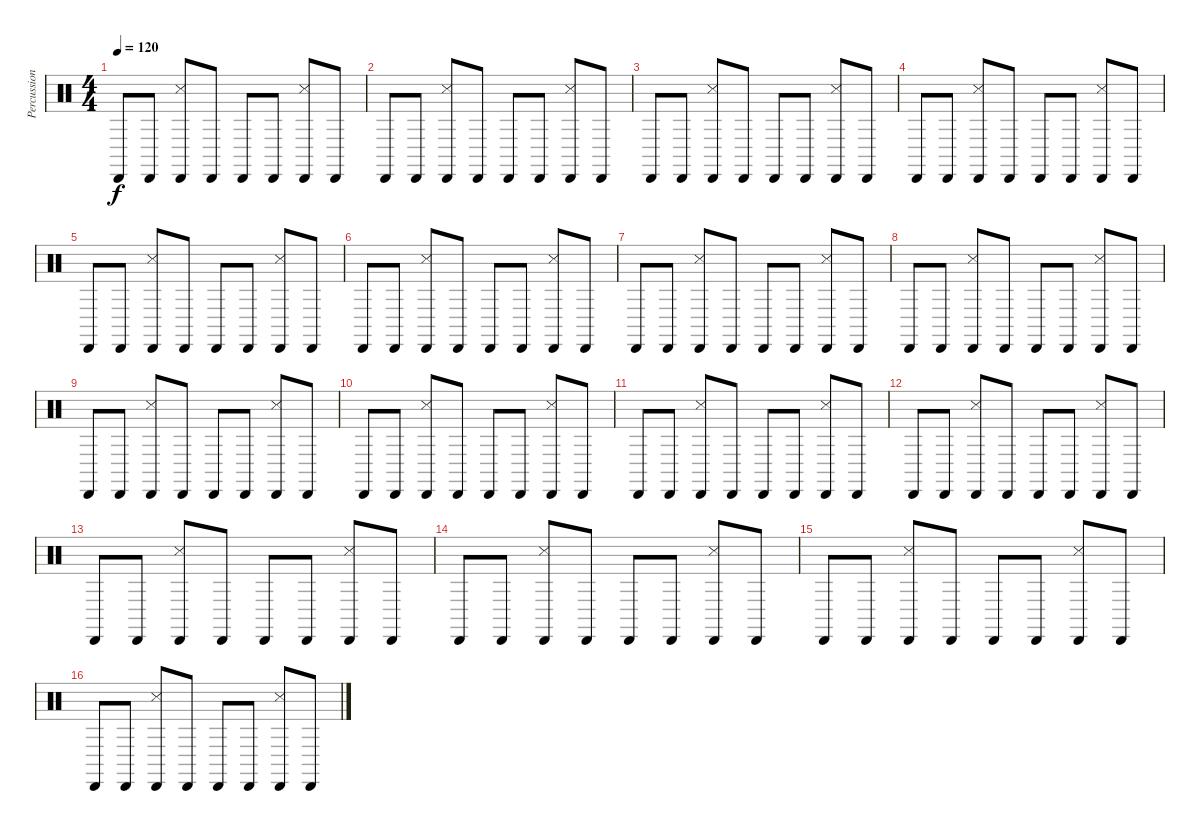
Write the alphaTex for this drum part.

\track ("Percussions" "Percussion") {instrument percussion}
\staff {score}
\articulation defaults
\ts (4 4)
\tempo 120
\clef neutral
\ks c "Cabasa (hit)".8{dy f} "Cabasa (hit)".8
("Snare (side stick) 3" "Cabasa (hit)").8 "Cabasa (hit)".8 "Cabasa (hit)".8 "Cabasa (hit)".8 ("Snare (side stick) 3" "Cabasa (hit)").8 "Cabasa (hit)".8 |
"Cabasa (hit)".8 "Cabasa (hit)".8 ("Snare (side stick) 3" "Cabasa (hit)").8 "Cabasa (hit)".8 "Cabasa (hit)".8 "Cabasa (hit)".8 ("Snare (side stick) 3" "Cabasa (hit)").8 "Cabasa (hit)".8 |
"Cabasa (hit)".8 "Cabasa (hit)".8 ("Snare (side stick) 3" "Cabasa (hit)").8 "Cabasa (hit)".8 "Cabasa (hit)".8 "Cabasa (hit)".8 ("Snare (side stick) 3" "Cabasa (hit)").8 "Cabasa (hit)".8 |
"Cabasa (hit)".8 "Cabasa (hit)".8 ("Snare (side stick) 3" "Cabasa (hit)").8 "Cabasa (hit)".8 "Cabasa (hit)".8 "Cabasa (hit)".8 ("Snare (side stick) 3" "Cabasa (hit)").8 "Cabasa (hit)".8 |
"Cabasa (hit)".8 "Cabasa (hit)".8 ("Snare (side stick) 3" "Cabasa (hit)").8 "Cabasa (hit)".8 "Cabasa (hit)".8 "Cabasa (hit)".8 ("Snare (side stick) 3" "Cabasa (hit)").8 "Cabasa (hit)".8 |
"Cabasa (hit)".8 "Cabasa (hit)".8 ("Snare (side stick) 3" "Cabasa (hit)").8 "Cabasa (hit)".8 "Cabasa (hit)".8 "Cabasa (hit)".8 ("Snare (side stick) 3" "Cabasa (hit)").8 "Cabasa (hit)".8 |
"Cabasa (hit)".8 "Cabasa (hit)".8 ("Snare (side stick) 3" "Cabasa (hit)").8 "Cabasa (hit)".8 "Cabasa (hit)".8 "Cabasa (hit)".8 ("Snare (side stick) 3" "Cabasa (hit)").8 "Cabasa (hit)".8 |
"Cabasa (hit)".8 "Cabasa (hit)".8 ("Snare (side stick) 3" "Cabasa (hit)").8 "Cabasa (hit)".8 "Cabasa (hit)".8 "Cabasa (hit)".8 ("Snare (side stick) 3" "Cabasa (hit)").8 "Cabasa (hit)".8 |
"Cabasa (hit)".8 "Cabasa (hit)".8 ("Snare (side stick) 3" "Cabasa (hit)").8 "Cabasa (hit)".8 "Cabasa (hit)".8 "Cabasa (hit)".8 ("Snare (side stick) 3" "Cabasa (hit)").8 "Cabasa (hit)".8 |
"Cabasa (hit)".8 "Cabasa (hit)".8 ("Snare (side stick) 3" "Cabasa (hit)").8 "Cabasa (hit)".8 "Cabasa (hit)".8 "Cabasa (hit)".8 ("Snare (side stick) 3" "Cabasa (hit)").8 "Cabasa (hit)".8 |
"Cabasa (hit)".8 "Cabasa (hit)".8 ("Snare (side stick) 3" "Cabasa (hit)").8 "Cabasa (hit)".8 "Cabasa (hit)".8 "Cabasa (hit)".8 ("Snare (side stick) 3" "Cabasa (hit)").8 "Cabasa (hit)".8 |
"Cabasa (hit)".8 "Cabasa (hit)".8 ("Snare (side stick) 3" "Cabasa (hit)").8 "Cabasa (hit)".8 "Cabasa (hit)".8 "Cabasa (hit)".8 ("Snare (side stick) 3" "Cabasa (hit)").8 "Cabasa (hit)".8 |
"Cabasa (hit)".8 "Cabasa (hit)".8 ("Snare (side stick) 3" "Cabasa (hit)").8 "Cabasa (hit)".8 "Cabasa (hit)".8 "Cabasa (hit)".8 ("Snare (side stick) 3" "Cabasa (hit)").8 "Cabasa (hit)".8 |
"Cabasa (hit)".8 "Cabasa (hit)".8 ("Snare (side stick) 3" "Cabasa (hit)").8 "Cabasa (hit)".8 "Cabasa (hit)".8 "Cabasa (hit)".8 ("Snare (side stick) 3" "Cabasa (hit)").8 "Cabasa (hit)".8 |
"Cabasa (hit)".8 "Cabasa (hit)".8 ("Snare (side stick) 3" "Cabasa (hit)").8 "Cabasa (hit)".8 "Cabasa (hit)".8 "Cabasa (hit)".8 ("Snare (side stick) 3" "Cabasa (hit)").8 "Cabasa (hit)".8 |
"Cabasa (hit)".8 "Cabasa (hit)".8 ("Snare (side stick) 3" "Cabasa (hit)").8 "Cabasa (hit)".8 "Cabasa (hit)".8 "Cabasa (hit)".8 ("Snare (side stick) 3" "Cabasa (hit)").8 "Cabasa (hit)".8
